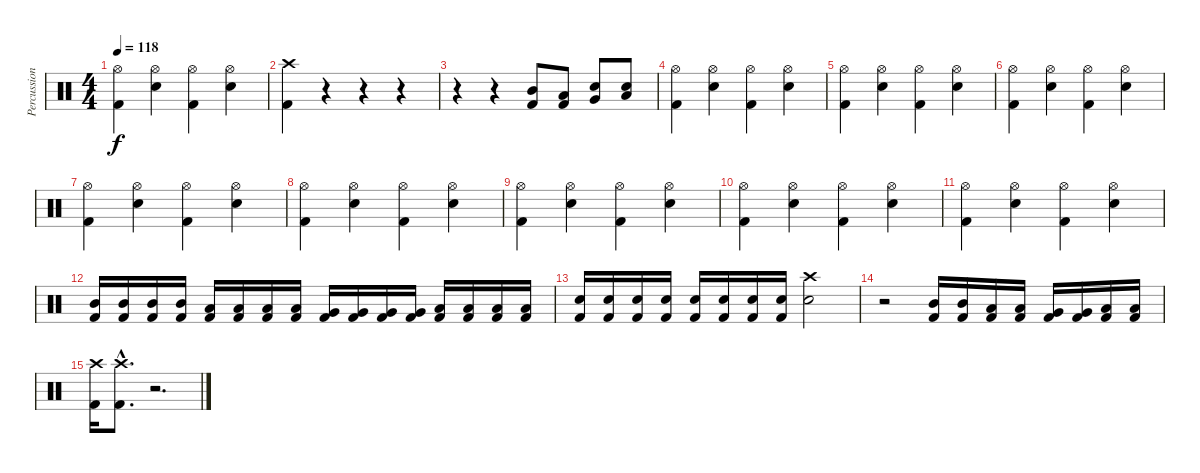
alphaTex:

\track ("Percussion" "Percussion") {instrument percussion}
\staff {score}
\articulation defaults
\ts (4 4)
\tempo 118
\clef neutral
\ks c
("Hi-Hat (open)" "Kick (hit) 2").4{dy f} ("Hi-Hat (open)" "Snare (hit) 2").4 ("Hi-Hat (open)" "Kick (hit) 2").4 ("Hi-Hat (open)" "Snare (hit) 2").4 |
("Crash high (hit)" "Kick (hit) 2").4 r.4 r.4 r.4 |
r.4 r.4 ("Mid Tom (hit)" "Kick (hit) 2").8 ("Low Tom (hit)" "Kick (hit) 2").8 ("Very Low Tom (hit)" "Snare (hit) 2").8 ("Low Floor Tom (hit)" "Snare (hit) 2").8 |
("Hi-Hat (open)" "Kick (hit) 2").4 ("Hi-Hat (open)" "Snare (hit) 2").4 ("Hi-Hat (open)" "Kick (hit) 2").4 ("Hi-Hat (open)" "Snare (hit) 2").4 |
("Hi-Hat (open)" "Kick (hit) 2").4 ("Hi-Hat (open)" "Snare (hit) 2").4 ("Hi-Hat (open)" "Kick (hit) 2").4 ("Hi-Hat (open)" "Snare (hit) 2").4 |
("Hi-Hat (open)" "Kick (hit) 2").4 ("Hi-Hat (open)" "Snare (hit) 2").4 ("Hi-Hat (open)" "Kick (hit) 2").4 ("Hi-Hat (open)" "Snare (hit) 2").4 |
("Hi-Hat (open)" "Kick (hit) 2").4 ("Hi-Hat (open)" "Snare (hit) 2").4 ("Hi-Hat (open)" "Kick (hit) 2").4 ("Hi-Hat (open)" "Snare (hit) 2").4 |
("Hi-Hat (open)" "Kick (hit) 2").4 ("Hi-Hat (open)" "Snare (hit) 2").4 ("Hi-Hat (open)" "Kick (hit) 2").4 ("Hi-Hat (open)" "Snare (hit) 2").4 |
("Hi-Hat (open)" "Kick (hit) 2").4 ("Hi-Hat (open)" "Snare (hit) 2").4 ("Hi-Hat (open)" "Kick (hit) 2").4 ("Hi-Hat (open)" "Snare (hit) 2").4 |
("Hi-Hat (open)" "Kick (hit) 2").4 ("Hi-Hat (open)" "Snare (hit) 2").4 ("Hi-Hat (open)" "Kick (hit) 2").4 ("Hi-Hat (open)" "Snare (hit) 2").4 |
("Hi-Hat (open)" "Kick (hit) 2").4 ("Hi-Hat (open)" "Snare (hit) 2").4 ("Hi-Hat (open)" "Kick (hit) 2").4 ("Hi-Hat (open)" "Snare (hit) 2").4 |
("Mid Tom (hit)" "Kick (hit) 2").16 ("Mid Tom (hit)" "Kick (hit) 2").16 ("Mid Tom (hit)" "Kick (hit) 2").16 ("Mid Tom (hit)" "Kick (hit) 2").16 ("Low Tom (hit)" "Kick (hit) 2").16 ("Low Tom (hit)" "Kick (hit) 2").16 ("Low Tom (hit)" "Kick (hit) 2").16 ("Low Tom (hit)" "Kick (hit) 2").16 ("Very Low Tom (hit)" "Kick (hit) 2").16 ("Very Low Tom (hit)" "Kick (hit) 2").16 ("Very Low Tom (hit)" "Kick (hit) 2").16 ("Very Low Tom (hit)" "Kick (hit) 2").16 ("Low Floor Tom (hit)" "Kick (hit) 2").16 ("Low Floor Tom (hit)" "Kick (hit) 2").16 ("Low Floor Tom (hit)" "Kick (hit) 2").16 ("Low Floor Tom (hit)" "Kick (hit) 2").16 |
("Electric Snare (hit)" "Kick (hit) 2").16 ("Electric Snare (hit)" "Kick (hit) 2").16 ("Electric Snare (hit)" "Kick (hit) 2").16 ("Electric Snare (hit)" "Kick (hit) 2").16 ("Electric Snare (hit)" "Kick (hit) 2").16 ("Electric Snare (hit)" "Kick (hit) 2").16 ("Electric Snare (hit)" "Kick (hit) 2").16 ("Electric Snare (hit)" "Kick (hit) 2").16 ("Crash high (hit)" "Snare (hit) 2").2 |
r.2 ("Mid Tom (hit)" "Kick (hit) 2").16 ("Mid Tom (hit)" "Kick (hit) 2").16 ("Low Tom (hit)" "Kick (hit) 2").16 ("Low Tom (hit)" "Kick (hit) 2").16 ("Very Low Tom (hit)" "Kick (hit) 2").16 ("Very Low Tom (hit)" "Kick (hit) 2").16 ("Low Floor Tom (hit)" "Kick (hit) 2").16 ("Low Floor Tom (hit)" "Kick (hit) 2").16 |
("Crash high (hit)" "Kick (hit) 2").16 ("Crash high (hit)"{hac} "Kick (hit) 2"{hac}).8{d} r.2{d}
